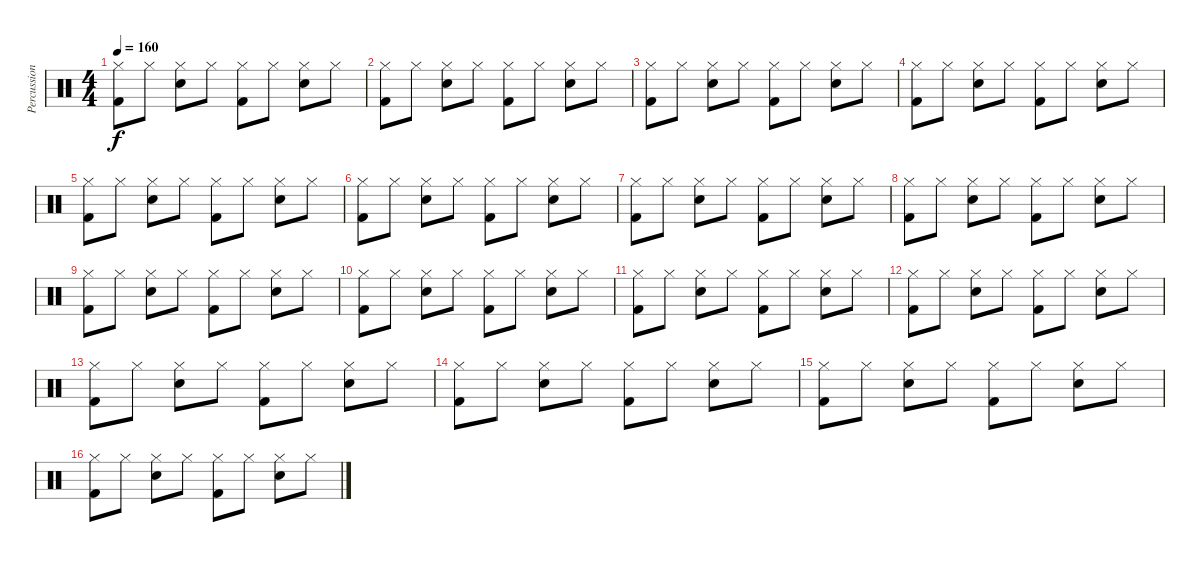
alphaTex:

\track ("Percussion" "Percussion") {instrument percussion}
\staff {score}
\articulation defaults
\ts (4 4)
\tempo 160
\clef neutral
\ks c
("Hi-Hat (closed)" "Kick (hit) 2").8{dy f} "Hi-Hat (closed)".8 ("Hi-Hat (closed)" "Electric Snare (hit)").8 "Hi-Hat (closed)".8 ("Hi-Hat (closed)" "Kick (hit) 2").8 "Hi-Hat (closed)".8 ("Hi-Hat (closed)" "Electric Snare (hit)").8 "Hi-Hat (closed)".8 |
("Hi-Hat (closed)" "Kick (hit) 2").8 "Hi-Hat (closed)".8 ("Hi-Hat (closed)" "Electric Snare (hit)").8 "Hi-Hat (closed)".8 ("Hi-Hat (closed)" "Kick (hit) 2").8 "Hi-Hat (closed)".8 ("Hi-Hat (closed)" "Electric Snare (hit)").8 "Hi-Hat (closed)".8 |
("Hi-Hat (closed)" "Kick (hit) 2").8 "Hi-Hat (closed)".8 ("Hi-Hat (closed)" "Electric Snare (hit)").8 "Hi-Hat (closed)".8 ("Hi-Hat (closed)" "Kick (hit) 2").8 "Hi-Hat (closed)".8 ("Hi-Hat (closed)" "Electric Snare (hit)").8 "Hi-Hat (closed)".8 |
("Hi-Hat (closed)" "Kick (hit) 2").8 "Hi-Hat (closed)".8 ("Hi-Hat (closed)" "Electric Snare (hit)").8 "Hi-Hat (closed)".8 ("Hi-Hat (closed)" "Kick (hit) 2").8 "Hi-Hat (closed)".8 ("Hi-Hat (closed)" "Electric Snare (hit)").8 "Hi-Hat (closed)".8 |
("Hi-Hat (closed)" "Kick (hit) 2").8 "Hi-Hat (closed)".8 ("Hi-Hat (closed)" "Electric Snare (hit)").8 "Hi-Hat (closed)".8 ("Hi-Hat (closed)" "Kick (hit) 2").8 "Hi-Hat (closed)".8 ("Hi-Hat (closed)" "Electric Snare (hit)").8 "Hi-Hat (closed)".8 |
("Hi-Hat (closed)" "Kick (hit) 2").8 "Hi-Hat (closed)".8 ("Hi-Hat (closed)" "Electric Snare (hit)").8 "Hi-Hat (closed)".8 ("Hi-Hat (closed)" "Kick (hit) 2").8 "Hi-Hat (closed)".8 ("Hi-Hat (closed)" "Electric Snare (hit)").8 "Hi-Hat (closed)".8 |
("Hi-Hat (closed)" "Kick (hit) 2").8 "Hi-Hat (closed)".8 ("Hi-Hat (closed)" "Electric Snare (hit)").8 "Hi-Hat (closed)".8 ("Hi-Hat (closed)" "Kick (hit) 2").8 "Hi-Hat (closed)".8 ("Hi-Hat (closed)" "Electric Snare (hit)").8 "Hi-Hat (closed)".8 |
("Hi-Hat (closed)" "Kick (hit) 2").8 "Hi-Hat (closed)".8 ("Hi-Hat (closed)" "Electric Snare (hit)").8 "Hi-Hat (closed)".8 ("Hi-Hat (closed)" "Kick (hit) 2").8 "Hi-Hat (closed)".8 ("Hi-Hat (closed)" "Electric Snare (hit)").8 "Hi-Hat (closed)".8 |
("Hi-Hat (closed)" "Kick (hit) 2").8 "Hi-Hat (closed)".8 ("Hi-Hat (closed)" "Electric Snare (hit)").8 "Hi-Hat (closed)".8 ("Hi-Hat (closed)" "Kick (hit) 2").8 "Hi-Hat (closed)".8 ("Hi-Hat (closed)" "Electric Snare (hit)").8 "Hi-Hat (closed)".8 |
("Hi-Hat (closed)" "Kick (hit) 2").8 "Hi-Hat (closed)".8 ("Hi-Hat (closed)" "Electric Snare (hit)").8 "Hi-Hat (closed)".8 ("Hi-Hat (closed)" "Kick (hit) 2").8 "Hi-Hat (closed)".8 ("Hi-Hat (closed)" "Electric Snare (hit)").8 "Hi-Hat (closed)".8 |
("Hi-Hat (closed)" "Kick (hit) 2").8 "Hi-Hat (closed)".8 ("Hi-Hat (closed)" "Electric Snare (hit)").8 "Hi-Hat (closed)".8 ("Hi-Hat (closed)" "Kick (hit) 2").8 "Hi-Hat (closed)".8 ("Hi-Hat (closed)" "Electric Snare (hit)").8 "Hi-Hat (closed)".8 |
("Hi-Hat (closed)" "Kick (hit) 2").8 "Hi-Hat (closed)".8 ("Hi-Hat (closed)" "Electric Snare (hit)").8 "Hi-Hat (closed)".8 ("Hi-Hat (closed)" "Kick (hit) 2").8 "Hi-Hat (closed)".8 ("Hi-Hat (closed)" "Electric Snare (hit)").8 "Hi-Hat (closed)".8 |
("Hi-Hat (closed)" "Kick (hit) 2").8 "Hi-Hat (closed)".8 ("Hi-Hat (closed)" "Electric Snare (hit)").8 "Hi-Hat (closed)".8 ("Hi-Hat (closed)" "Kick (hit) 2").8 "Hi-Hat (closed)".8 ("Hi-Hat (closed)" "Electric Snare (hit)").8 "Hi-Hat (closed)".8 |
("Hi-Hat (closed)" "Kick (hit) 2").8 "Hi-Hat (closed)".8 ("Hi-Hat (closed)" "Electric Snare (hit)").8 "Hi-Hat (closed)".8 ("Hi-Hat (closed)" "Kick (hit) 2").8 "Hi-Hat (closed)".8 ("Hi-Hat (closed)" "Electric Snare (hit)").8 "Hi-Hat (closed)".8 |
("Hi-Hat (closed)" "Kick (hit) 2").8 "Hi-Hat (closed)".8 ("Hi-Hat (closed)" "Electric Snare (hit)").8 "Hi-Hat (closed)".8 ("Hi-Hat (closed)" "Kick (hit) 2").8 "Hi-Hat (closed)".8 ("Hi-Hat (closed)" "Electric Snare (hit)").8 "Hi-Hat (closed)".8 |
("Hi-Hat (closed)" "Kick (hit) 2").8 "Hi-Hat (closed)".8 ("Hi-Hat (closed)" "Electric Snare (hit)").8 "Hi-Hat (closed)".8 ("Hi-Hat (closed)" "Kick (hit) 2").8 "Hi-Hat (closed)".8 ("Hi-Hat (closed)" "Electric Snare (hit)").8 "Hi-Hat (closed)".8
